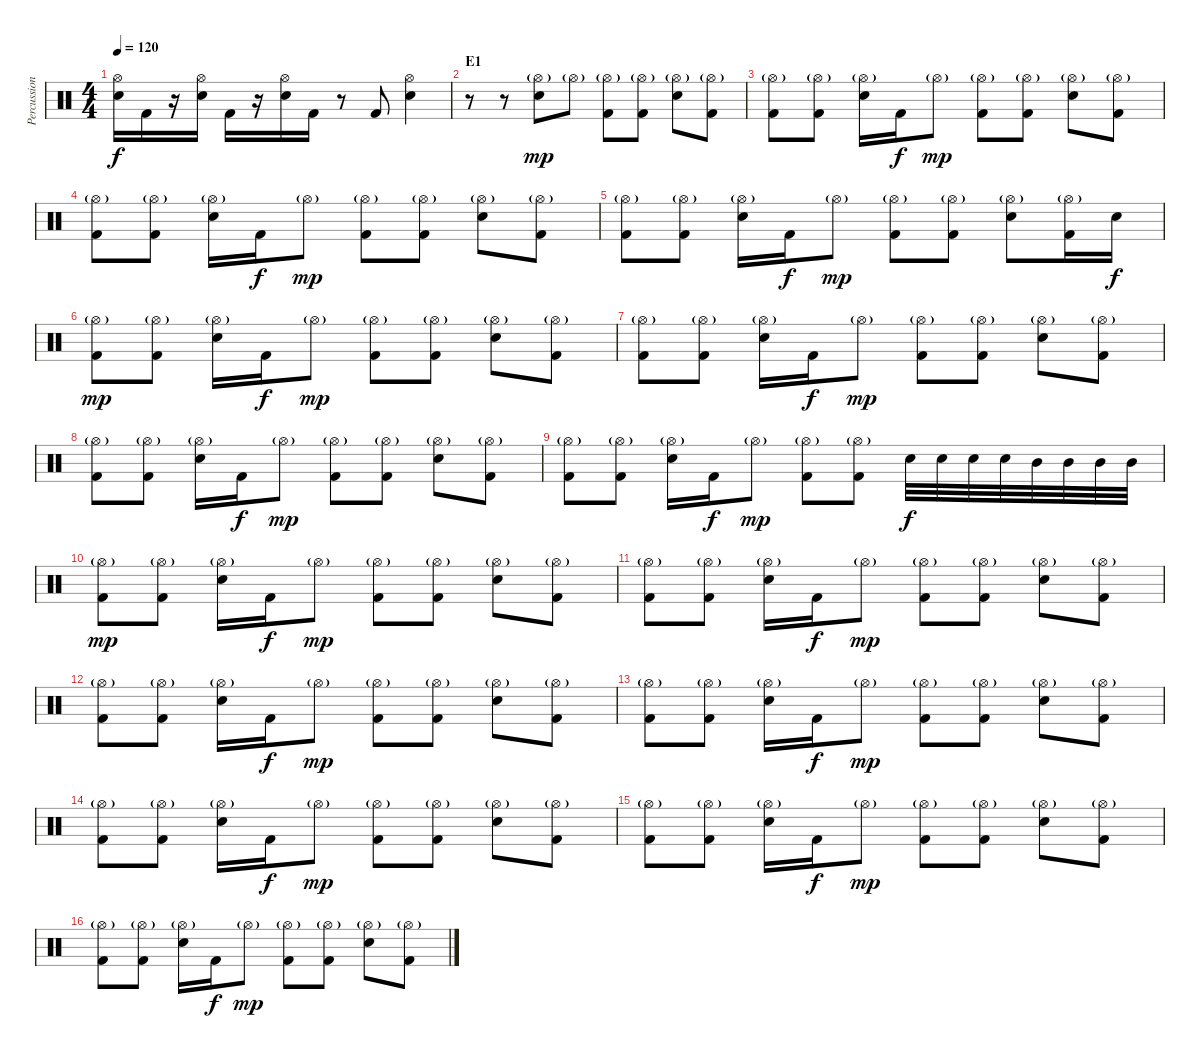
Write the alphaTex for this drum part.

\track ("Percussion" "Percussion") {instrument percussion}
\staff {score}
\articulation defaults
\ts (4 4)
\tempo 120
\clef neutral
\ks c
("Hi-Hat (open)" "Snare (hit) 2").16{dy f} "Kick (hit) 2".16 r.16 ("Hi-Hat (open)" "Snare (hit) 2").16 "Kick (hit) 2".16 r.16 ("Hi-Hat (open)" "Snare (hit) 2").16 "Kick (hit) 2".16 r.8 "Kick (hit) 2".8 ("Hi-Hat (open)" "Snare (hit) 2").4 |
\section ("" "E1")
r.8 r.8 ("Hi-Hat (open)"{g} "Snare (hit) 2").8{dy mp} "Hi-Hat (open)"{g}.8 ("Hi-Hat (open)"{g} "Kick (hit) 2").8 ("Hi-Hat (open)"{g} "Kick (hit) 2").8 ("Hi-Hat (open)"{g} "Snare (hit) 2").8 ("Hi-Hat (open)"{g} "Kick (hit) 2").8 |
("Hi-Hat (open)"{g} "Kick (hit) 2").8 ("Hi-Hat (open)"{g} "Kick (hit) 2").8 ("Hi-Hat (open)"{g} "Snare (hit) 2").16 "Kick (hit) 2".16{dy f} "Hi-Hat (open)"{g}.8{dy mp} ("Hi-Hat (open)"{g} "Kick (hit) 2").8 ("Hi-Hat (open)"{g} "Kick (hit) 2").8 ("Hi-Hat (open)"{g} "Snare (hit) 2").8 ("Hi-Hat (open)"{g} "Kick (hit) 2").8 |
("Hi-Hat (open)"{g} "Kick (hit) 2").8 ("Hi-Hat (open)"{g} "Kick (hit) 2").8 ("Hi-Hat (open)"{g} "Snare (hit) 2").16 "Kick (hit) 2".16{dy f} "Hi-Hat (open)"{g}.8{dy mp} ("Hi-Hat (open)"{g} "Kick (hit) 2").8 ("Hi-Hat (open)"{g} "Kick (hit) 2").8 ("Hi-Hat (open)"{g} "Snare (hit) 2").8 ("Hi-Hat (open)"{g} "Kick (hit) 2").8 |
("Hi-Hat (open)"{g} "Kick (hit) 2").8 ("Hi-Hat (open)"{g} "Kick (hit) 2").8 ("Hi-Hat (open)"{g} "Snare (hit) 2").16 "Kick (hit) 2".16{dy f} "Hi-Hat (open)"{g}.8{dy mp} ("Hi-Hat (open)"{g} "Kick (hit) 2").8 ("Hi-Hat (open)"{g} "Kick (hit) 2").8 ("Hi-Hat (open)"{g} "Snare (hit) 2").8 ("Hi-Hat (open)"{g} "Kick (hit) 2").16 "Snare (hit) 2".16{dy f} |
("Hi-Hat (open)"{g} "Kick (hit) 2").8{dy mp} ("Hi-Hat (open)"{g} "Kick (hit) 2").8 ("Hi-Hat (open)"{g} "Snare (hit) 2").16 "Kick (hit) 2".16{dy f} "Hi-Hat (open)"{g}.8{dy mp} ("Hi-Hat (open)"{g} "Kick (hit) 2").8 ("Hi-Hat (open)"{g} "Kick (hit) 2").8 ("Hi-Hat (open)"{g} "Snare (hit) 2").8 ("Hi-Hat (open)"{g} "Kick (hit) 2").8 |
("Hi-Hat (open)"{g} "Kick (hit) 2").8 ("Hi-Hat (open)"{g} "Kick (hit) 2").8 ("Hi-Hat (open)"{g} "Snare (hit) 2").16 "Kick (hit) 2".16{dy f} "Hi-Hat (open)"{g}.8{dy mp} ("Hi-Hat (open)"{g} "Kick (hit) 2").8 ("Hi-Hat (open)"{g} "Kick (hit) 2").8 ("Hi-Hat (open)"{g} "Snare (hit) 2").8 ("Hi-Hat (open)"{g} "Kick (hit) 2").8 |
("Hi-Hat (open)"{g} "Kick (hit) 2").8 ("Hi-Hat (open)"{g} "Kick (hit) 2").8 ("Hi-Hat (open)"{g} "Snare (hit) 2").16 "Kick (hit) 2".16{dy f} "Hi-Hat (open)"{g}.8{dy mp} ("Hi-Hat (open)"{g} "Kick (hit) 2").8 ("Hi-Hat (open)"{g} "Kick (hit) 2").8 ("Hi-Hat (open)"{g} "Snare (hit) 2").8 ("Hi-Hat (open)"{g} "Kick (hit) 2").8 |
("Hi-Hat (open)"{g} "Kick (hit) 2").8 ("Hi-Hat (open)"{g} "Kick (hit) 2").8 ("Hi-Hat (open)"{g} "Snare (hit) 2").16 "Kick (hit) 2".16{dy f} "Hi-Hat (open)"{g}.8{dy mp} ("Hi-Hat (open)"{g} "Kick (hit) 2").8 ("Hi-Hat (open)"{g} "Kick (hit) 2").8 "Snare (hit) 2".32{dy f} "Snare (hit) 2".32 "Snare (hit) 2".32 "Snare (hit) 2".32 "Mid Tom (hit)".32 "Mid Tom (hit)".32 "Mid Tom (hit)".32 "Mid Tom (hit)".32 |
("Hi-Hat (open)"{g} "Kick (hit) 2").8{dy mp} ("Hi-Hat (open)"{g} "Kick (hit) 2").8 ("Hi-Hat (open)"{g} "Snare (hit) 2").16 "Kick (hit) 2".16{dy f} "Hi-Hat (open)"{g}.8{dy mp} ("Hi-Hat (open)"{g} "Kick (hit) 2").8 ("Hi-Hat (open)"{g} "Kick (hit) 2").8 ("Hi-Hat (open)"{g} "Snare (hit) 2").8 ("Hi-Hat (open)"{g} "Kick (hit) 2").8 |
("Hi-Hat (open)"{g} "Kick (hit) 2").8 ("Hi-Hat (open)"{g} "Kick (hit) 2").8 ("Hi-Hat (open)"{g} "Snare (hit) 2").16 "Kick (hit) 2".16{dy f} "Hi-Hat (open)"{g}.8{dy mp} ("Hi-Hat (open)"{g} "Kick (hit) 2").8 ("Hi-Hat (open)"{g} "Kick (hit) 2").8 ("Hi-Hat (open)"{g} "Snare (hit) 2").8 ("Hi-Hat (open)"{g} "Kick (hit) 2").8 |
("Hi-Hat (open)"{g} "Kick (hit) 2").8 ("Hi-Hat (open)"{g} "Kick (hit) 2").8 ("Hi-Hat (open)"{g} "Snare (hit) 2").16 "Kick (hit) 2".16{dy f} "Hi-Hat (open)"{g}.8{dy mp} ("Hi-Hat (open)"{g} "Kick (hit) 2").8 ("Hi-Hat (open)"{g} "Kick (hit) 2").8 ("Hi-Hat (open)"{g} "Snare (hit) 2").8 ("Hi-Hat (open)"{g} "Kick (hit) 2").8 |
("Hi-Hat (open)"{g} "Kick (hit) 2").8 ("Hi-Hat (open)"{g} "Kick (hit) 2").8 ("Hi-Hat (open)"{g} "Snare (hit) 2").16 "Kick (hit) 2".16{dy f} "Hi-Hat (open)"{g}.8{dy mp} ("Hi-Hat (open)"{g} "Kick (hit) 2").8 ("Hi-Hat (open)"{g} "Kick (hit) 2").8 ("Hi-Hat (open)"{g} "Snare (hit) 2").8 ("Hi-Hat (open)"{g} "Kick (hit) 2").8 |
("Hi-Hat (open)"{g} "Kick (hit) 2").8 ("Hi-Hat (open)"{g} "Kick (hit) 2").8 ("Hi-Hat (open)"{g} "Snare (hit) 2").16 "Kick (hit) 2".16{dy f} "Hi-Hat (open)"{g}.8{dy mp} ("Hi-Hat (open)"{g} "Kick (hit) 2").8 ("Hi-Hat (open)"{g} "Kick (hit) 2").8 ("Hi-Hat (open)"{g} "Snare (hit) 2").8 ("Hi-Hat (open)"{g} "Kick (hit) 2").8 |
("Hi-Hat (open)"{g} "Kick (hit) 2").8 ("Hi-Hat (open)"{g} "Kick (hit) 2").8 ("Hi-Hat (open)"{g} "Snare (hit) 2").16 "Kick (hit) 2".16{dy f} "Hi-Hat (open)"{g}.8{dy mp} ("Hi-Hat (open)"{g} "Kick (hit) 2").8 ("Hi-Hat (open)"{g} "Kick (hit) 2").8 ("Hi-Hat (open)"{g} "Snare (hit) 2").8 ("Hi-Hat (open)"{g} "Kick (hit) 2").8 |
("Hi-Hat (open)"{g} "Kick (hit) 2").8 ("Hi-Hat (open)"{g} "Kick (hit) 2").8 ("Hi-Hat (open)"{g} "Snare (hit) 2").16 "Kick (hit) 2".16{dy f} "Hi-Hat (open)"{g}.8{dy mp} ("Hi-Hat (open)"{g} "Kick (hit) 2").8 ("Hi-Hat (open)"{g} "Kick (hit) 2").8 ("Hi-Hat (open)"{g} "Snare (hit) 2").8 ("Hi-Hat (open)"{g} "Kick (hit) 2").8
